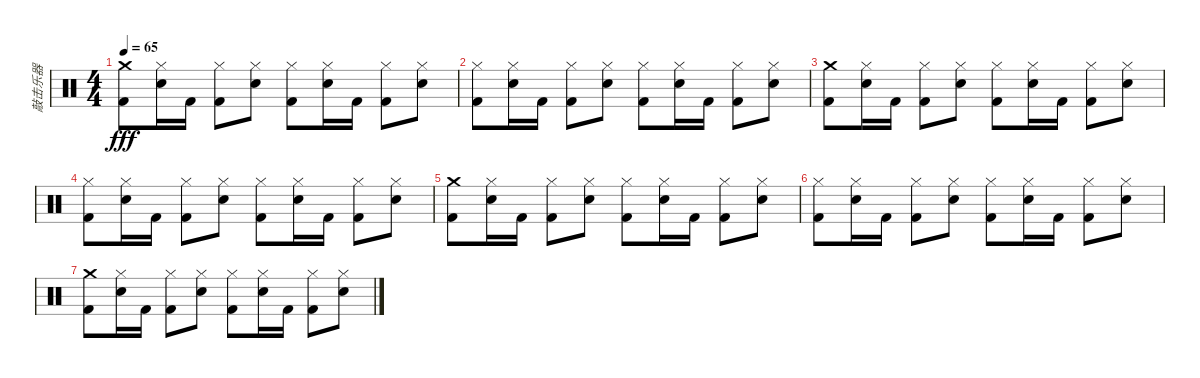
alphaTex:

\track ("敲击乐器" "敲击乐器") {instrument percussion}
\staff {score}
\articulation defaults
\ts (4 4)
\tempo 65
\clef neutral
\ks c
("Crash medium (hit)" "Kick (hit) 2").8{dy fff} ("Hi-Hat (closed)" "Electric Snare (hit)").16 "Kick (hit) 2".16 ("Hi-Hat (closed)" "Kick (hit) 2").8 ("Hi-Hat (closed)" "Electric Snare (hit)").8 ("Hi-Hat (closed)" "Kick (hit) 2").8 ("Hi-Hat (closed)" "Electric Snare (hit)").16 "Kick (hit) 2".16 ("Hi-Hat (closed)" "Kick (hit) 2").8 ("Hi-Hat (closed)" "Electric Snare (hit)").8 |
("Hi-Hat (closed)" "Kick (hit) 2").8 ("Hi-Hat (closed)" "Electric Snare (hit)").16 "Kick (hit) 2".16 ("Hi-Hat (closed)" "Kick (hit) 2").8 ("Hi-Hat (closed)" "Electric Snare (hit)").8 ("Hi-Hat (closed)" "Kick (hit) 2").8 ("Hi-Hat (closed)" "Electric Snare (hit)").16 "Kick (hit) 2".16 ("Hi-Hat (closed)" "Kick (hit) 2").8 ("Hi-Hat (closed)" "Electric Snare (hit)").8 |
("Crash medium (hit)" "Kick (hit) 2").8 ("Hi-Hat (closed)" "Electric Snare (hit)").16 "Kick (hit) 2".16 ("Hi-Hat (closed)" "Kick (hit) 2").8 ("Hi-Hat (closed)" "Electric Snare (hit)").8 ("Hi-Hat (closed)" "Kick (hit) 2").8{volume 15} ("Hi-Hat (closed)" "Electric Snare (hit)").16 "Kick (hit) 2".16 ("Hi-Hat (closed)" "Kick (hit) 2").8{volume 14} ("Hi-Hat (closed)" "Electric Snare (hit)").8 |
("Hi-Hat (closed)" "Kick (hit) 2").8{volume 13} ("Hi-Hat (closed)" "Electric Snare (hit)").16 "Kick (hit) 2".16 ("Hi-Hat (closed)" "Kick (hit) 2").8{volume 12} ("Hi-Hat (closed)" "Electric Snare (hit)").8 ("Hi-Hat (closed)" "Kick (hit) 2").8{volume 11} ("Hi-Hat (closed)" "Electric Snare (hit)").16 "Kick (hit) 2".16 ("Hi-Hat (closed)" "Kick (hit) 2").8{volume 10} ("Hi-Hat (closed)" "Electric Snare (hit)").8 |
("Crash medium (hit)" "Kick (hit) 2").8{volume 9} ("Hi-Hat (closed)" "Electric Snare (hit)").16 "Kick (hit) 2".16 ("Hi-Hat (closed)" "Kick (hit) 2").8{volume 8} ("Hi-Hat (closed)" "Electric Snare (hit)").8 ("Hi-Hat (closed)" "Kick (hit) 2").8{volume 7} ("Hi-Hat (closed)" "Electric Snare (hit)").16 "Kick (hit) 2".16 ("Hi-Hat (closed)" "Kick (hit) 2").8{volume 6} ("Hi-Hat (closed)" "Electric Snare (hit)").8 |
("Hi-Hat (closed)" "Kick (hit) 2").8{volume 5} ("Hi-Hat (closed)" "Electric Snare (hit)").16 "Kick (hit) 2".16 ("Hi-Hat (closed)" "Kick (hit) 2").8{volume 4} ("Hi-Hat (closed)" "Electric Snare (hit)").8 ("Hi-Hat (closed)" "Kick (hit) 2").8{volume 3} ("Hi-Hat (closed)" "Electric Snare (hit)").16 "Kick (hit) 2".16 ("Hi-Hat (closed)" "Kick (hit) 2").8{volume 2} ("Hi-Hat (closed)" "Electric Snare (hit)").8 |
("Crash medium (hit)" "Kick (hit) 2").8{volume 1} ("Hi-Hat (closed)" "Electric Snare (hit)").16{volume 0} "Kick (hit) 2".16 ("Hi-Hat (closed)" "Kick (hit) 2").8 ("Hi-Hat (closed)" "Electric Snare (hit)").8 ("Hi-Hat (closed)" "Kick (hit) 2").8 ("Hi-Hat (closed)" "Electric Snare (hit)").16 "Kick (hit) 2".16 ("Hi-Hat (closed)" "Kick (hit) 2").8 ("Hi-Hat (closed)" "Electric Snare (hit)").8
